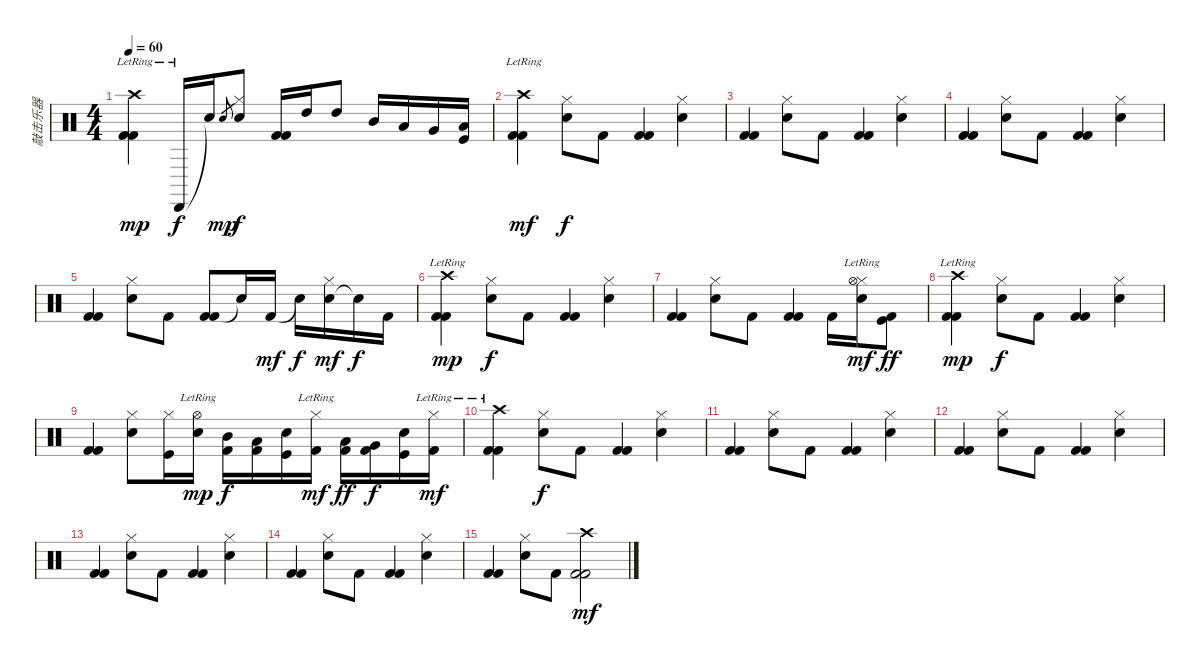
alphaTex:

\track ("敲击乐器" "敲击乐器") {instrument percussion}
\staff {score}
\articulation defaults
\ts (4 4)
\tempo 60
\clef neutral
\ks c
("Kick (hit) 2" "Kick (hit) 2" "Crash high (hit)"{lr}).4{dy mp} "Cabasa (hit)"{lr}.16{dy f} "Snare (hit)"{t}.16 "Electric Snare (hit)".8{gr dy mp} ("Electric Snare (hit)" "Hi-Hat (closed)").8{dy f} ("Kick (hit) 2" "Kick (hit) 2").16 "High Tom (hit)".16 "High Tom (hit)".8 "Mid Tom (hit)".16 "Low Tom (hit)".16 "Very Low Tom (hit)".16 ("Low Floor Tom (hit)" "Kick (hit)").16 |
("Kick (hit) 2" "Kick (hit) 2" "Crash high (hit)"{lr}).4{dy mf} ("Electric Snare (hit)" "Hi-Hat (closed)").8{dy f} "Kick (hit) 2".8 ("Kick (hit) 2" "Kick (hit) 2").4 ("Electric Snare (hit)" "Hi-Hat (closed)").4 |
("Kick (hit) 2" "Kick (hit) 2").4 ("Electric Snare (hit)" "Hi-Hat (closed)").8 "Kick (hit) 2".8 ("Kick (hit) 2" "Kick (hit) 2").4 ("Electric Snare (hit)" "Hi-Hat (closed)").4 |
("Kick (hit) 2" "Kick (hit) 2").4 ("Electric Snare (hit)" "Hi-Hat (closed)").8 "Kick (hit) 2".8 ("Kick (hit) 2" "Kick (hit) 2").4 ("Electric Snare (hit)" "Hi-Hat (closed)").4 |
("Kick (hit) 2" "Kick (hit) 2").4 ("Electric Snare (hit)" "Hi-Hat (closed)").8 "Kick (hit) 2".8 ("Kick (hit) 2" "Kick (hit) 2").8 "Snare (hit)"{t}.16 "Kick (hit) 2".16{dy mf} "Snare (hit)"{t}.16{dy f} ("Electric Snare (hit)" "Hi-Hat (closed)").16{dy mf} "Snare (hit)"{t}.16{dy f} "Kick (hit) 2".16 |
("Kick (hit) 2" "Kick (hit) 2" "Crash high (hit)"{lr}).4{dy mp} ("Electric Snare (hit)" "Hi-Hat (closed)").8{dy f} "Kick (hit) 2".8 ("Kick (hit) 2" "Kick (hit) 2").4 ("Electric Snare (hit)" "Hi-Hat (closed)").4 |
("Kick (hit) 2" "Kick (hit) 2").4 ("Electric Snare (hit)" "Hi-Hat (closed)").8 "Kick (hit) 2".8 ("Kick (hit) 2" "Kick (hit) 2").4 "Kick (hit) 2".16 ("Electric Snare (hit)" "Hi-Hat (closed)" "Hi-Hat (open)"{lr}).16{dy mf} ("Kick (hit) 2" "Kick (hit)").8{dy ff} |
("Kick (hit) 2" "Kick (hit) 2" "Crash high (hit)"{lr}).4{dy mp} ("Electric Snare (hit)" "Hi-Hat (closed)").8{dy f} "Kick (hit) 2".8 ("Kick (hit) 2" "Kick (hit) 2").4 ("Electric Snare (hit)" "Hi-Hat (closed)").4 |
("Kick (hit) 2" "Kick (hit) 2").4 ("Electric Snare (hit)" "Hi-Hat (closed)").8 ("Kick (hit)" "Hi-Hat (closed)").16 ("Electric Snare (hit)" "Hi-Hat (open)"{lr}).16{dy mp} ("Kick (hit) 2" "Mid Tom (hit)").16{dy f} ("Kick (hit) 2" "Low Tom (hit)").16 ("Electric Snare (hit)" "Kick (hit)").16 ("Kick (hit) 2" "Hi-Hat (closed)"{lr}).16{dy mf} ("Kick (hit) 2" "Low Tom (hit)").16{dy ff} ("Kick (hit) 2" "Very Low Tom (hit)").16{dy f} ("Electric Snare (hit)" "Kick (hit)").16 ("Kick (hit) 2" "Hi-Hat (closed)"{lr}).16{dy mf} |
("Kick (hit) 2" "Kick (hit) 2" "Crash high (hit)"{lr}).4 ("Electric Snare (hit)" "Hi-Hat (closed)").8{dy f} "Kick (hit) 2".8 ("Kick (hit) 2" "Kick (hit) 2").4 ("Electric Snare (hit)" "Hi-Hat (closed)").4 |
("Kick (hit) 2" "Kick (hit) 2").4 ("Electric Snare (hit)" "Hi-Hat (closed)").8 "Kick (hit) 2".8 ("Kick (hit) 2" "Kick (hit) 2").4 ("Electric Snare (hit)" "Hi-Hat (closed)").4 |
("Kick (hit) 2" "Kick (hit) 2").4 ("Electric Snare (hit)" "Hi-Hat (closed)").8 "Kick (hit) 2".8 ("Kick (hit) 2" "Kick (hit) 2").4 ("Electric Snare (hit)" "Hi-Hat (closed)").4 |
("Kick (hit) 2" "Kick (hit) 2").4 ("Electric Snare (hit)" "Hi-Hat (closed)").8 "Kick (hit) 2".8 ("Kick (hit) 2" "Kick (hit) 2").4 ("Electric Snare (hit)" "Hi-Hat (closed)").4 |
("Kick (hit) 2" "Kick (hit) 2").4 ("Electric Snare (hit)" "Hi-Hat (closed)").8 "Kick (hit) 2".8 ("Kick (hit) 2" "Kick (hit) 2").4 ("Electric Snare (hit)" "Hi-Hat (closed)").4 |
("Kick (hit) 2" "Kick (hit) 2").4 ("Electric Snare (hit)" "Hi-Hat (closed)").8 "Kick (hit) 2".8 ("Kick (hit) 2" "Kick (hit) 2" "Crash high (hit)").2{dy mf}
